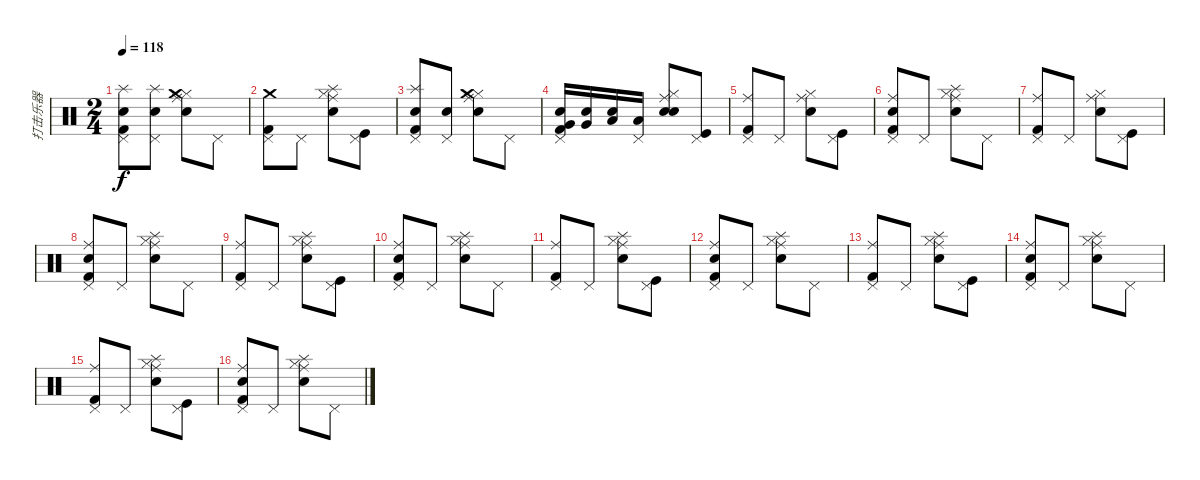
\track ("打击乐器" "打击乐器") {instrument percussion}
\staff {score}
\articulation defaults
\ts (2 4)
\tempo 118
\clef neutral
\ks c
("Snare (hit) 2" "Pedal Hi-Hat (hit)" "Splash (hit)" "Kick (hit) 2").8{dy f} ("Snare (hit) 2" "Pedal Hi-Hat (hit)" "Splash (hit)").8 ("Ride (middle)" "Hi-Hat (closed)" "Crash medium (hit)" "Snare (hit) 2").8 "Pedal Hi-Hat (hit)".8 |
("Pedal Hi-Hat (hit)" "Crash medium (hit)" "Kick (hit) 2").8 "Pedal Hi-Hat (hit)".8 ("Ride (middle)" "Hi-Hat (closed)" "Splash (hit)" "Snare (hit) 2").8 ("Pedal Hi-Hat (hit)" "Kick (hit)").8 |
("Snare (hit) 2" "Pedal Hi-Hat (hit)" "Splash (hit)" "Kick (hit) 2").8 ("Snare (hit) 2" "Pedal Hi-Hat (hit)").8 ("Ride (middle)" "Hi-Hat (closed)" "Crash medium (hit)" "Snare (hit) 2").8 "Pedal Hi-Hat (hit)".8 |
("Very Low Tom (hit)" "Pedal Hi-Hat (hit)" "Electric Snare (hit)" "Kick (hit) 2").16 ("Very Low Tom (hit)" "Electric Snare (hit)").16 ("Low Floor Tom (hit)" "Electric Snare (hit)").16 ("Low Floor Tom (hit)" "Pedal Hi-Hat (hit)").16 ("Ride (middle)" "Hi-Hat (closed)" "Electric Snare (hit)" "Snare (hit) 2").8 ("Pedal Hi-Hat (hit)" "Kick (hit)").8 |
("Pedal Hi-Hat (hit)" "Ride (middle)" "Kick (hit) 2").8 "Pedal Hi-Hat (hit)".8 ("Ride (middle)" "Hi-Hat (closed)" "Snare (hit) 2").8 ("Pedal Hi-Hat (hit)" "Kick (hit)").8 |
("Snare (hit) 2" "Pedal Hi-Hat (hit)" "Ride (middle)" "Kick (hit) 2").8 "Pedal Hi-Hat (hit)".8 ("Ride (middle)" "Hi-Hat (closed)" "Splash (hit)" "Snare (hit) 2").8 "Pedal Hi-Hat (hit)".8 |
("Pedal Hi-Hat (hit)" "Ride (middle)" "Kick (hit) 2").8 "Pedal Hi-Hat (hit)".8 ("Ride (middle)" "Hi-Hat (closed)" "Snare (hit) 2").8 ("Pedal Hi-Hat (hit)" "Kick (hit)").8 |
("Snare (hit) 2" "Pedal Hi-Hat (hit)" "Ride (middle)" "Kick (hit) 2").8 "Pedal Hi-Hat (hit)".8 ("Ride (middle)" "Hi-Hat (closed)" "Splash (hit)" "Snare (hit) 2").8 "Pedal Hi-Hat (hit)".8 |
("Pedal Hi-Hat (hit)" "Ride (middle)" "Kick (hit) 2").8 "Pedal Hi-Hat (hit)".8 ("Ride (middle)" "Hi-Hat (closed)" "Splash (hit)" "Snare (hit) 2").8 ("Pedal Hi-Hat (hit)" "Kick (hit)").8 |
("Snare (hit) 2" "Pedal Hi-Hat (hit)" "Ride (middle)" "Kick (hit) 2").8 "Pedal Hi-Hat (hit)".8 ("Ride (middle)" "Hi-Hat (closed)" "Splash (hit)" "Snare (hit) 2").8 "Pedal Hi-Hat (hit)".8 |
("Pedal Hi-Hat (hit)" "Ride (middle)" "Kick (hit) 2").8 "Pedal Hi-Hat (hit)".8 ("Ride (middle)" "Hi-Hat (closed)" "Splash (hit)" "Snare (hit) 2").8 ("Pedal Hi-Hat (hit)" "Kick (hit)").8 |
("Snare (hit) 2" "Pedal Hi-Hat (hit)" "Ride (middle)" "Kick (hit) 2").8 "Pedal Hi-Hat (hit)".8 ("Ride (middle)" "Hi-Hat (closed)" "Splash (hit)" "Snare (hit) 2").8 "Pedal Hi-Hat (hit)".8 |
("Pedal Hi-Hat (hit)" "Ride (middle)" "Kick (hit) 2").8 "Pedal Hi-Hat (hit)".8 ("Ride (middle)" "Hi-Hat (closed)" "Splash (hit)" "Snare (hit) 2").8 ("Pedal Hi-Hat (hit)" "Kick (hit)").8 |
("Snare (hit) 2" "Pedal Hi-Hat (hit)" "Ride (middle)" "Kick (hit) 2").8 "Pedal Hi-Hat (hit)".8 ("Ride (middle)" "Hi-Hat (closed)" "Splash (hit)" "Snare (hit) 2").8 "Pedal Hi-Hat (hit)".8 |
("Pedal Hi-Hat (hit)" "Ride (middle)" "Kick (hit) 2").8 "Pedal Hi-Hat (hit)".8 ("Ride (middle)" "Hi-Hat (closed)" "Splash (hit)" "Snare (hit) 2").8 ("Pedal Hi-Hat (hit)" "Kick (hit)").8 |
("Snare (hit) 2" "Pedal Hi-Hat (hit)" "Ride (middle)" "Kick (hit) 2").8 "Pedal Hi-Hat (hit)".8 ("Ride (middle)" "Hi-Hat (closed)" "Splash (hit)" "Snare (hit) 2").8 "Pedal Hi-Hat (hit)".8
